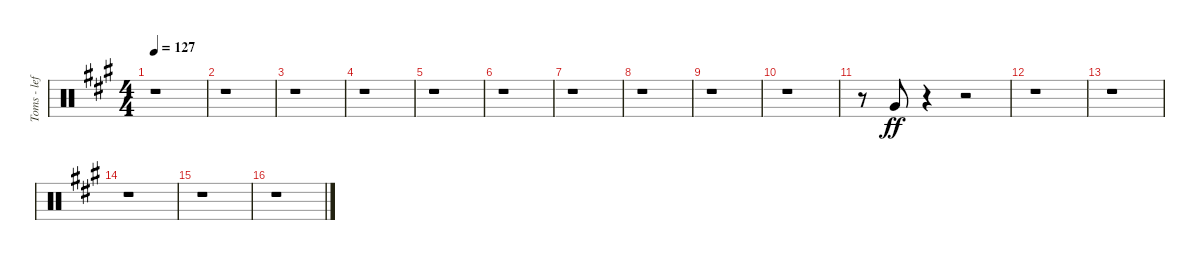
\track ("Toms - left" "Toms - lef") {instrument percussion}
\staff {score}
\articulation defaults
\ts (4 4)
\tempo 127
\clef neutral
\ks a
r.1{dy f} |
r.1 |
r.1 |
r.1 |
r.1 |
r.1 |
r.1 |
r.1 |
r.1 |
r.1 |
r.8{beam Up} "Very Low Tom (hit)".8{dy ff beam Up} r.4 r.2 |
r.1 |
r.1 |
r.1 |
r.1 |
r.1
